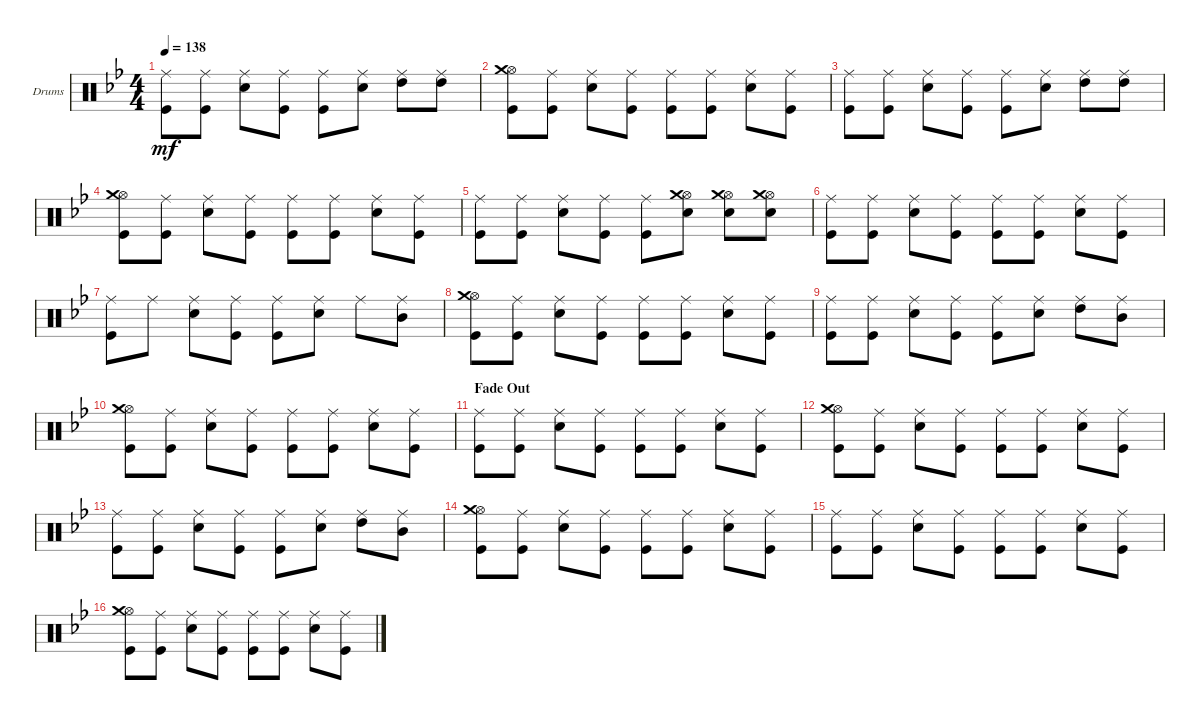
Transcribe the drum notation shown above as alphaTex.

\defaultSystemsLayout 4
\bracketExtendMode groupsimilarinstruments
\firstSystemTrackNameOrientation horizontal
\otherSystemsTrackNameOrientation horizontal
\track ("Drumkit" "Drums") {instrument percussion}
\staff {score}
\articulation defaults
\ts (4 4)
\tempo 138
\clef neutral
\ks gminor
("Ride (middle)" "Kick (hit)").8{dy mf} ("Ride (middle)" "Kick (hit)").8 ("Ride (middle)" "Snare (hit) 2").8 ("Ride (middle)" "Kick (hit)").8 ("Ride (middle)" "Kick (hit)").8 ("Ride (middle)" "Snare (hit) 2").8 ("Ride (middle)" "High Tom (hit)").8 ("Ride (middle)" "High Tom (hit)").8 |
("Hi-Hat (open)" "Crash medium (hit)" "Kick (hit)").8 ("Ride (middle)" "Kick (hit)").8 ("Ride (middle)" "Snare (hit) 2").8 ("Ride (middle)" "Kick (hit)").8 ("Ride (middle)" "Kick (hit)").8 ("Ride (middle)" "Kick (hit)").8 ("Ride (middle)" "Snare (hit) 2").8 ("Ride (middle)" "Kick (hit)").8 |
("Ride (middle)" "Kick (hit)").8 ("Ride (middle)" "Kick (hit)").8 ("Ride (middle)" "Snare (hit) 2").8 ("Ride (middle)" "Kick (hit)").8 ("Ride (middle)" "Kick (hit)").8 ("Ride (middle)" "Snare (hit) 2").8 ("Ride (middle)" "High Tom (hit)").8 ("Ride (middle)" "High Tom (hit)").8 |
("Kick (hit)" "Hi-Hat (open)" "Crash medium (hit)").8 ("Ride (middle)" "Kick (hit)").8 ("Ride (middle)" "Snare (hit) 2").8 ("Ride (middle)" "Kick (hit)").8 ("Ride (middle)" "Kick (hit)").8 ("Ride (middle)" "Kick (hit)").8 ("Ride (middle)" "Snare (hit) 2").8 ("Ride (middle)" "Kick (hit)").8 |
("Ride (middle)" "Kick (hit)").8 ("Ride (middle)" "Kick (hit)").8 ("Ride (middle)" "Snare (hit) 2").8 ("Ride (middle)" "Kick (hit)").8 ("Ride (middle)" "Kick (hit)").8 ("Snare (hit) 2" "Hi-Hat (open)" "Crash medium (hit)").8 ("Hi-Hat (open)" "Crash medium (hit)" "Snare (hit) 2").8 ("Hi-Hat (open)" "Crash medium (hit)" "Snare (hit) 2").8 |
("Kick (hit)" "Ride (middle)").8 ("Ride (middle)" "Kick (hit)").8 ("Ride (middle)" "Snare (hit) 2").8 ("Ride (middle)" "Kick (hit)").8 ("Ride (middle)" "Kick (hit)").8 ("Ride (middle)" "Kick (hit)").8 ("Ride (middle)" "Snare (hit) 2").8 ("Ride (middle)" "Kick (hit)").8 |
("Ride (middle)" "Kick (hit)").8 "Ride (middle)".8 ("Ride (middle)" "Snare (hit) 2").8 ("Ride (middle)" "Kick (hit)").8 ("Ride (middle)" "Kick (hit)").8 ("Ride (middle)" "Snare (hit) 2").8 "Ride (middle)".8 ("Ride (middle)" "Mid Tom (hit)").8 |
("Kick (hit)" "Hi-Hat (open)" "Crash medium (hit)").8 ("Ride (middle)" "Kick (hit)").8 ("Ride (middle)" "Snare (hit) 2").8 ("Ride (middle)" "Kick (hit)").8 ("Ride (middle)" "Kick (hit)").8 ("Ride (middle)" "Kick (hit)").8 ("Ride (middle)" "Snare (hit) 2").8 ("Ride (middle)" "Kick (hit)").8 |
("Kick (hit)" "Ride (middle)").8 ("Ride (middle)" "Kick (hit)").8 ("Ride (middle)" "Snare (hit) 2").8 ("Ride (middle)" "Kick (hit)").8 ("Ride (middle)" "Kick (hit)").8 ("Ride (middle)" "Snare (hit) 2").8 ("Ride (middle)" "High Tom (hit)").8 ("Ride (middle)" "Mid Tom (hit)").8 |
("Kick (hit)" "Hi-Hat (open)" "Crash medium (hit)").8 ("Ride (middle)" "Kick (hit)").8 ("Ride (middle)" "Snare (hit) 2").8 ("Ride (middle)" "Kick (hit)").8 ("Ride (middle)" "Kick (hit)").8 ("Ride (middle)" "Kick (hit)").8 ("Ride (middle)" "Snare (hit) 2").8 ("Ride (middle)" "Kick (hit)").8 |
\section ("" "Fade Out")
("Ride (middle)" "Kick (hit)").8 ("Ride (middle)" "Kick (hit)").8 ("Ride (middle)" "Snare (hit) 2").8 ("Ride (middle)" "Kick (hit)").8 ("Ride (middle)" "Kick (hit)").8 ("Ride (middle)" "Kick (hit)").8 ("Ride (middle)" "Snare (hit) 2").8 ("Ride (middle)" "Kick (hit)").8 |
("Kick (hit)" "Hi-Hat (open)" "Crash medium (hit)").8 ("Ride (middle)" "Kick (hit)").8 ("Ride (middle)" "Snare (hit) 2").8 ("Ride (middle)" "Kick (hit)").8 ("Ride (middle)" "Kick (hit)").8 ("Ride (middle)" "Kick (hit)").8 ("Ride (middle)" "Snare (hit) 2").8 ("Ride (middle)" "Kick (hit)").8 |
("Kick (hit)" "Ride (middle)").8 ("Ride (middle)" "Kick (hit)").8 ("Ride (middle)" "Snare (hit) 2").8 ("Ride (middle)" "Kick (hit)").8 ("Ride (middle)" "Kick (hit)").8 ("Ride (middle)" "Snare (hit) 2").8 ("Ride (middle)" "High Tom (hit)").8 ("Ride (middle)" "Mid Tom (hit)").8 |
("Kick (hit)" "Hi-Hat (open)" "Crash medium (hit)").8 ("Ride (middle)" "Kick (hit)").8 ("Ride (middle)" "Snare (hit) 2").8 ("Ride (middle)" "Kick (hit)").8 ("Ride (middle)" "Kick (hit)").8 ("Ride (middle)" "Kick (hit)").8 ("Ride (middle)" "Snare (hit) 2").8 ("Ride (middle)" "Kick (hit)").8 |
("Ride (middle)" "Kick (hit)").8 ("Ride (middle)" "Kick (hit)").8 ("Ride (middle)" "Snare (hit) 2").8 ("Ride (middle)" "Kick (hit)").8 ("Ride (middle)" "Kick (hit)").8 ("Ride (middle)" "Kick (hit)").8 ("Ride (middle)" "Snare (hit) 2").8 ("Ride (middle)" "Kick (hit)").8 |
("Kick (hit)" "Hi-Hat (open)" "Crash medium (hit)").8 ("Ride (middle)" "Kick (hit)").8 ("Ride (middle)" "Snare (hit) 2").8 ("Ride (middle)" "Kick (hit)").8 ("Ride (middle)" "Kick (hit)").8 ("Ride (middle)" "Kick (hit)").8 ("Ride (middle)" "Snare (hit) 2").8 ("Ride (middle)" "Kick (hit)").8
